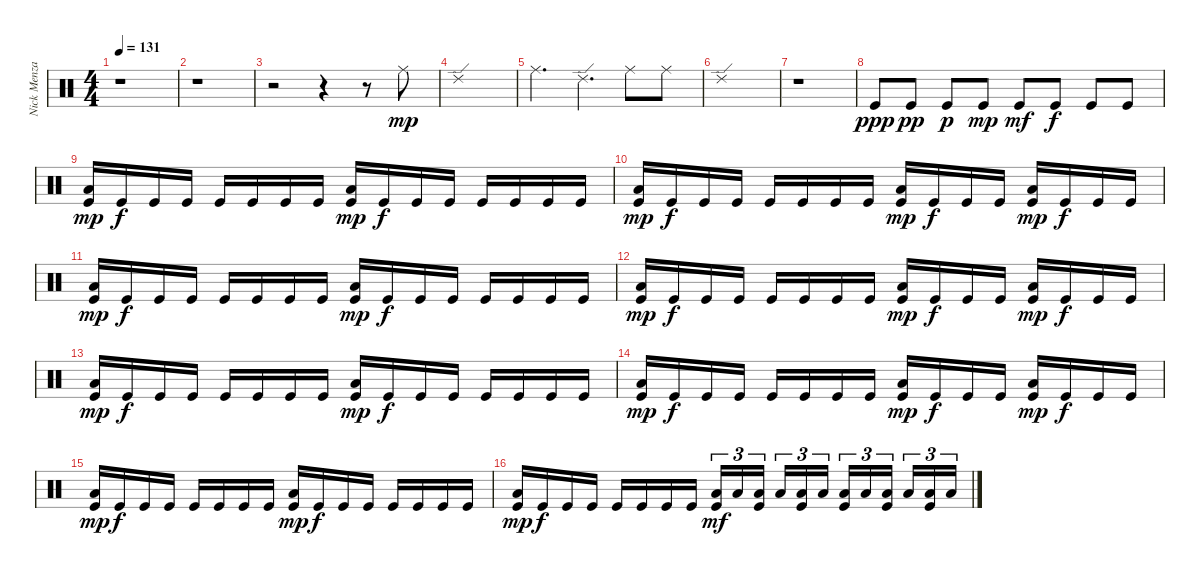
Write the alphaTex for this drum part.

\track ("Nick Menza" "Nick Menza") {instrument percussion}
\staff {score}
\articulation defaults
\ts (4 4)
\tempo 131
\clef neutral
\ks c
r.1{dy fff} |
r.1 |
r.2 r.4 r.8 "Ride (middle)".8{dy mp} |
"Ride (edge) 2".1 |
"Ride (middle)".4{d} "Ride (edge) 2".4{d} "Ride (middle)".8 "Ride (middle)".8 |
"Ride (edge) 2".1 |
r.1 |
"Kick (hit)".8{dy ppp} "Kick (hit)".8{dy pp} "Kick (hit)".8{dy p} "Kick (hit)".8{dy mp} "Kick (hit)".8{dy mf} "Kick (hit)".8{dy f} "Kick (hit)".8 "Kick (hit)".8 |
("Low Floor Tom (hit)" "Kick (hit)").16{dy mp} "Kick (hit)".16{dy f} "Kick (hit)".16 "Kick (hit)".16 "Kick (hit)".16 "Kick (hit)".16 "Kick (hit)".16 "Kick (hit)".16 ("Low Floor Tom (hit)" "Kick (hit)").16{dy mp} "Kick (hit)".16{dy f} "Kick (hit)".16 "Kick (hit)".16 "Kick (hit)".16 "Kick (hit)".16 "Kick (hit)".16 "Kick (hit)".16 |
("Low Floor Tom (hit)" "Kick (hit)").16{dy mp} "Kick (hit)".16{dy f} "Kick (hit)".16 "Kick (hit)".16 "Kick (hit)".16 "Kick (hit)".16 "Kick (hit)".16 "Kick (hit)".16 ("Low Floor Tom (hit)" "Kick (hit)").16{dy mp} "Kick (hit)".16{dy f} "Kick (hit)".16 "Kick (hit)".16 ("Low Floor Tom (hit)" "Kick (hit)").16{dy mp} "Kick (hit)".16{dy f} "Kick (hit)".16 "Kick (hit)".16 |
("Low Floor Tom (hit)" "Kick (hit)").16{dy mp} "Kick (hit)".16{dy f} "Kick (hit)".16 "Kick (hit)".16 "Kick (hit)".16 "Kick (hit)".16 "Kick (hit)".16 "Kick (hit)".16 ("Low Floor Tom (hit)" "Kick (hit)").16{dy mp} "Kick (hit)".16{dy f} "Kick (hit)".16 "Kick (hit)".16 "Kick (hit)".16 "Kick (hit)".16 "Kick (hit)".16 "Kick (hit)".16 |
("Low Floor Tom (hit)" "Kick (hit)").16{dy mp} "Kick (hit)".16{dy f} "Kick (hit)".16 "Kick (hit)".16 "Kick (hit)".16 "Kick (hit)".16 "Kick (hit)".16 "Kick (hit)".16 ("Low Floor Tom (hit)" "Kick (hit)").16{dy mp} "Kick (hit)".16{dy f} "Kick (hit)".16 "Kick (hit)".16 ("Low Floor Tom (hit)" "Kick (hit)").16{dy mp} "Kick (hit)".16{dy f} "Kick (hit)".16 "Kick (hit)".16 |
("Low Floor Tom (hit)" "Kick (hit)").16{dy mp} "Kick (hit)".16{dy f} "Kick (hit)".16 "Kick (hit)".16 "Kick (hit)".16 "Kick (hit)".16 "Kick (hit)".16 "Kick (hit)".16 ("Low Floor Tom (hit)" "Kick (hit)").16{dy mp} "Kick (hit)".16{dy f} "Kick (hit)".16 "Kick (hit)".16 "Kick (hit)".16 "Kick (hit)".16 "Kick (hit)".16 "Kick (hit)".16 |
("Low Floor Tom (hit)" "Kick (hit)").16{dy mp} "Kick (hit)".16{dy f} "Kick (hit)".16 "Kick (hit)".16 "Kick (hit)".16 "Kick (hit)".16 "Kick (hit)".16 "Kick (hit)".16 ("Low Floor Tom (hit)" "Kick (hit)").16{dy mp} "Kick (hit)".16{dy f} "Kick (hit)".16 "Kick (hit)".16 ("Low Floor Tom (hit)" "Kick (hit)").16{dy mp} "Kick (hit)".16{dy f} "Kick (hit)".16 "Kick (hit)".16 |
("Low Floor Tom (hit)" "Kick (hit)").16{dy mp} "Kick (hit)".16{dy f} "Kick (hit)".16 "Kick (hit)".16 "Kick (hit)".16 "Kick (hit)".16 "Kick (hit)".16 "Kick (hit)".16 ("Low Floor Tom (hit)" "Kick (hit)").16{dy mp} "Kick (hit)".16{dy f} "Kick (hit)".16 "Kick (hit)".16 "Kick (hit)".16 "Kick (hit)".16 "Kick (hit)".16 "Kick (hit)".16 |
("Low Floor Tom (hit)" "Kick (hit)").16{dy mp} "Kick (hit)".16{dy f} "Kick (hit)".16 "Kick (hit)".16 "Kick (hit)".16 "Kick (hit)".16 "Kick (hit)".16 "Kick (hit)".16 ("Low Floor Tom (hit)" "Kick (hit)").16{tu (3 2) dy mf} "Low Floor Tom (hit)".16{tu (3 2)} ("Low Floor Tom (hit)" "Kick (hit)").16{tu (3 2)} "Low Floor Tom (hit)".16{tu (3 2)} ("Low Floor Tom (hit)" "Kick (hit)").16{tu (3 2)} "Low Floor Tom (hit)".16{tu (3 2)} ("Low Floor Tom (hit)" "Kick (hit)").16{tu (3 2)} "Low Floor Tom (hit)".16{tu (3 2)} ("Low Floor Tom (hit)" "Kick (hit)").16{tu (3 2)} "Low Floor Tom (hit)".16{tu (3 2)} ("Low Floor Tom (hit)" "Kick (hit)").16{tu (3 2)} "Low Floor Tom (hit)".16{tu (3 2)}
